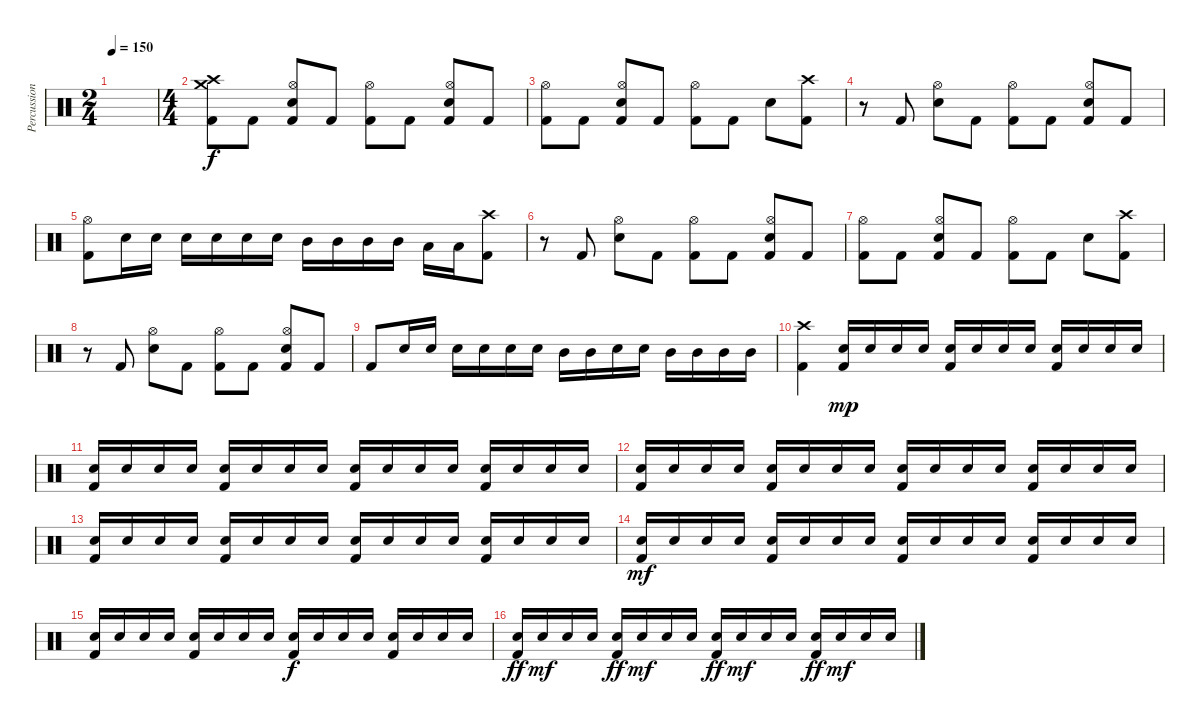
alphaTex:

\track ("Percussion" "Percussion") {instrument percussion}
\staff {score}
\articulation defaults
\ts (2 4)
\tempo 150
\clef neutral
\ks c
|
\ts (4 4)
("Crash high (hit)" "Crash medium (hit)" "Kick (hit) 2").8{dy f} "Kick (hit) 2".8 ("Hi-Hat (open)" "Snare (hit) 2" "Kick (hit) 2").8 "Kick (hit) 2".8 ("Hi-Hat (open)" "Kick (hit) 2").8 "Kick (hit) 2".8 ("Hi-Hat (open)" "Snare (hit) 2" "Kick (hit) 2").8 "Kick (hit) 2".8 |
("Hi-Hat (open)" "Kick (hit) 2").8 "Kick (hit) 2".8 ("Hi-Hat (open)" "Snare (hit) 2" "Kick (hit) 2").8 "Kick (hit) 2".8 ("Hi-Hat (open)" "Kick (hit) 2").8 "Kick (hit) 2".8 "Snare (hit) 2".8 ("Crash high (hit)" "Kick (hit) 2").8 |
r.8 "Kick (hit) 2".8 ("Hi-Hat (open)" "Snare (hit) 2").8 "Kick (hit) 2".8 ("Hi-Hat (open)" "Kick (hit) 2").8 "Kick (hit) 2".8 ("Hi-Hat (open)" "Snare (hit) 2" "Kick (hit) 2").8 "Kick (hit) 2".8 |
("Hi-Hat (open)" "Kick (hit) 2").8 "Snare (hit) 2".16 "Snare (hit) 2".16 "Snare (hit) 2".16 "Snare (hit) 2".16 "Snare (hit) 2".16 "Snare (hit) 2".16 "Mid Tom (hit)".16 "Mid Tom (hit)".16 "Mid Tom (hit)".16 "Mid Tom (hit)".16 "Low Tom (hit)".16 "Low Tom (hit)".16 ("Crash high (hit)" "Kick (hit) 2").8 |
r.8 "Kick (hit) 2".8 ("Hi-Hat (open)" "Snare (hit) 2").8 "Kick (hit) 2".8 ("Hi-Hat (open)" "Kick (hit) 2").8 "Kick (hit) 2".8 ("Hi-Hat (open)" "Snare (hit) 2" "Kick (hit) 2").8 "Kick (hit) 2".8 |
("Hi-Hat (open)" "Kick (hit) 2").8 "Kick (hit) 2".8 ("Hi-Hat (open)" "Snare (hit) 2" "Kick (hit) 2").8 "Kick (hit) 2".8 ("Hi-Hat (open)" "Kick (hit) 2").8 "Kick (hit) 2".8 "Snare (hit) 2".8 ("Crash high (hit)" "Kick (hit) 2").8 |
r.8 "Kick (hit) 2".8 ("Hi-Hat (open)" "Snare (hit) 2").8 "Kick (hit) 2".8 ("Hi-Hat (open)" "Kick (hit) 2").8 "Kick (hit) 2".8 ("Hi-Hat (open)" "Snare (hit) 2" "Kick (hit) 2").8 "Kick (hit) 2".8 |
"Kick (hit) 2".8 "Snare (hit) 2".16 "Snare (hit) 2".16 "Snare (hit) 2".16 "Snare (hit) 2".16 "Snare (hit) 2".16 "Snare (hit) 2".16 "Mid Tom (hit)".16 "Mid Tom (hit)".16 "Snare (hit) 2".16 "Snare (hit) 2".16 "Mid Tom (hit)".16 "Mid Tom (hit)".16 "Mid Tom (hit)".16 "Mid Tom (hit)".16 |
("Crash high (hit)" "Kick (hit) 2").4 ("Snare (hit) 2" "Kick (hit) 2").16{dy mp} "Snare (hit) 2".16 "Snare (hit) 2".16 "Snare (hit) 2".16 ("Snare (hit) 2" "Kick (hit) 2").16 "Snare (hit) 2".16 "Snare (hit) 2".16 "Snare (hit) 2".16 ("Snare (hit) 2" "Kick (hit) 2").16 "Snare (hit) 2".16 "Snare (hit) 2".16 "Snare (hit) 2".16 |
("Snare (hit) 2" "Kick (hit) 2").16 "Snare (hit) 2".16 "Snare (hit) 2".16 "Snare (hit) 2".16 ("Snare (hit) 2" "Kick (hit) 2").16 "Snare (hit) 2".16 "Snare (hit) 2".16 "Snare (hit) 2".16 ("Snare (hit) 2" "Kick (hit) 2").16 "Snare (hit) 2".16 "Snare (hit) 2".16 "Snare (hit) 2".16 ("Snare (hit) 2" "Kick (hit) 2").16 "Snare (hit) 2".16 "Snare (hit) 2".16 "Snare (hit) 2".16 |
("Snare (hit) 2" "Kick (hit) 2").16 "Snare (hit) 2".16 "Snare (hit) 2".16 "Snare (hit) 2".16 ("Snare (hit) 2" "Kick (hit) 2").16 "Snare (hit) 2".16 "Snare (hit) 2".16 "Snare (hit) 2".16 ("Snare (hit) 2" "Kick (hit) 2").16 "Snare (hit) 2".16 "Snare (hit) 2".16 "Snare (hit) 2".16 ("Snare (hit) 2" "Kick (hit) 2").16 "Snare (hit) 2".16 "Snare (hit) 2".16 "Snare (hit) 2".16 |
("Snare (hit) 2" "Kick (hit) 2").16 "Snare (hit) 2".16 "Snare (hit) 2".16 "Snare (hit) 2".16 ("Snare (hit) 2" "Kick (hit) 2").16 "Snare (hit) 2".16 "Snare (hit) 2".16 "Snare (hit) 2".16 ("Snare (hit) 2" "Kick (hit) 2").16 "Snare (hit) 2".16 "Snare (hit) 2".16 "Snare (hit) 2".16 ("Snare (hit) 2" "Kick (hit) 2").16 "Snare (hit) 2".16 "Snare (hit) 2".16 "Snare (hit) 2".16 |
("Snare (hit) 2" "Kick (hit) 2").16{dy mf} "Snare (hit) 2".16 "Snare (hit) 2".16 "Snare (hit) 2".16 ("Snare (hit) 2" "Kick (hit) 2").16 "Snare (hit) 2".16 "Snare (hit) 2".16 "Snare (hit) 2".16 ("Snare (hit) 2" "Kick (hit) 2").16 "Snare (hit) 2".16 "Snare (hit) 2".16 "Snare (hit) 2".16 ("Snare (hit) 2" "Kick (hit) 2").16 "Snare (hit) 2".16 "Snare (hit) 2".16 "Snare (hit) 2".16 |
("Snare (hit) 2" "Kick (hit) 2").16 "Snare (hit) 2".16 "Snare (hit) 2".16 "Snare (hit) 2".16 ("Snare (hit) 2" "Kick (hit) 2").16 "Snare (hit) 2".16 "Snare (hit) 2".16 "Snare (hit) 2".16 ("Snare (hit) 2" "Kick (hit) 2").16{dy f} "Snare (hit) 2".16 "Snare (hit) 2".16 "Snare (hit) 2".16 ("Snare (hit) 2" "Kick (hit) 2").16 "Snare (hit) 2".16 "Snare (hit) 2".16 "Snare (hit) 2".16 |
("Snare (hit) 2" "Kick (hit) 2").16{dy ff} "Snare (hit) 2".16{dy mf} "Snare (hit) 2".16 "Snare (hit) 2".16 ("Snare (hit) 2" "Kick (hit) 2").16{dy ff} "Snare (hit) 2".16{dy mf} "Snare (hit) 2".16 "Snare (hit) 2".16 ("Snare (hit) 2" "Kick (hit) 2").16{dy ff} "Snare (hit) 2".16{dy mf} "Snare (hit) 2".16 "Snare (hit) 2".16 ("Snare (hit) 2" "Kick (hit) 2").16{dy ff} "Snare (hit) 2".16{dy mf} "Snare (hit) 2".16 "Snare (hit) 2".16
